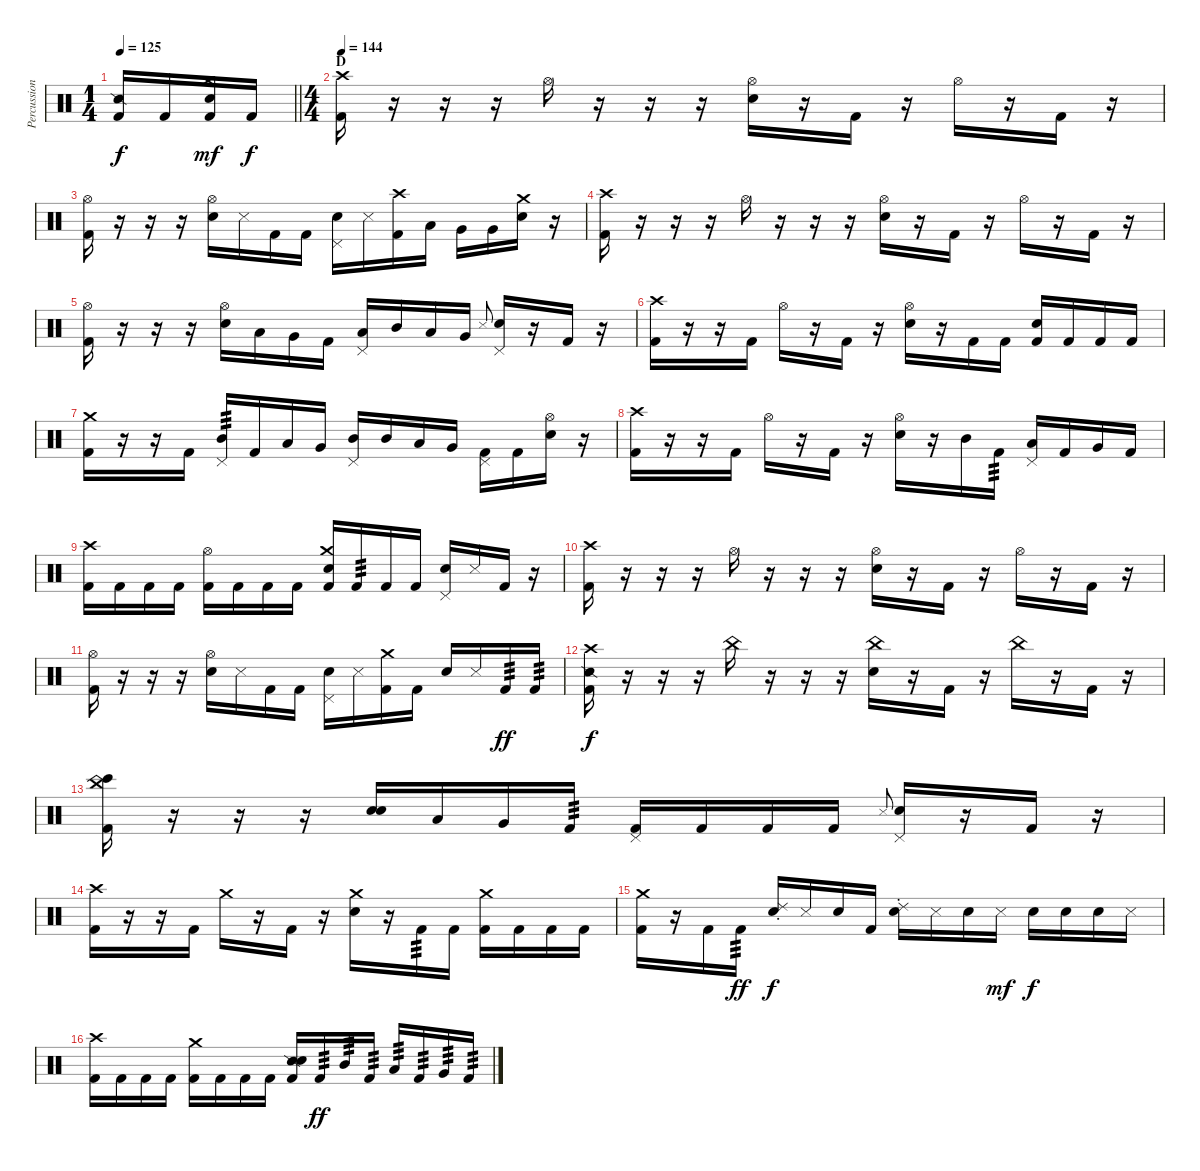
\track ("Percussion" "Percussion") {instrument percussion}
\staff {score}
\articulation defaults
\ts (1 4)
\tempo 125
\clef neutral
\barLineRight lightlight
\ks c
("Snare (side stick) 2" "Kick (hit) 2").16{dy f} "Kick (hit) 2".16 ("Crash medium (hit)" "Snare (hit) 2" "Kick (hit) 2").16{dy mf} "Kick (hit) 2".16{dy f} |
\ts (4 4)
\section ("" "D")
\tempo 144
("Crash high (hit)" "Kick (hit) 2").16 r.16 r.16 r.16 "Hi-Hat (open)".16 r.16 r.16 r.16 ("Hi-Hat (open)" "Snare (hit) 2").16 r.16 "Kick (hit) 2".16 r.16 "Hi-Hat (open)".16 r.16 "Kick (hit) 2".16 r.16 |
("Hi-Hat (open)" "Kick (hit) 2").16 r.16 r.16 r.16 ("Hi-Hat (open)" "Snare (hit) 2").16 "Metronome (hit)".16 "Kick (hit) 2".16 "Kick (hit) 2".16 ("Pedal Hi-Hat (hit)" "Snare (hit) 2").16 "Metronome (hit)".16 ("Crash high (hit)" "Kick (hit) 2").16 "Low Tom (hit)".16 "Very Low Tom (hit)".16 "Very Low Tom (hit)".16 ("Crash medium (hit)" "Snare (hit) 2").16 r.16 |
("Crash high (hit)" "Kick (hit) 2").16 r.16 r.16 r.16 "Hi-Hat (open)".16 r.16 r.16 r.16 ("Hi-Hat (open)" "Snare (hit) 2").16 r.16 "Kick (hit) 2".16 r.16 "Hi-Hat (open)".16 r.16 "Kick (hit) 2".16 r.16 |
("Hi-Hat (open)" "Kick (hit) 2").16 r.16 r.16 r.16 ("Hi-Hat (open)" "Snare (hit) 2").16 "Low Tom (hit)".16 "Very Low Tom (hit)".16 "Kick (hit) 2".16 ("Pedal Hi-Hat (hit)" "Low Floor Tom (hit)").16 "Mid Tom (hit)".16 "Low Tom (hit)".16 "Very Low Tom (hit)".16 "Metronome (hit)".8{gr onbeat} ("Pedal Hi-Hat (hit)" "Snare (hit) 2").16 r.16 "Kick (hit) 2".16 r.16 |
("Crash high (hit)" "Kick (hit) 2").16 r.16 r.16 "Kick (hit) 2".16 "Hi-Hat (open)".16 r.16 "Kick (hit) 2".16 r.16 ("Hi-Hat (open)" "Snare (hit) 2").16 r.16 "Kick (hit) 2".16 "Kick (hit) 2".16 ("Snare (hit)" "Kick (hit) 2").16 "Kick (hit) 2".16 "Kick (hit) 2".16 "Kick (hit) 2".16 |
("Crash medium (hit)" "Kick (hit) 2").16 r.16 r.16 "Kick (hit) 2".16 ("Pedal Hi-Hat (hit)" "Mid Tom (hit)").16{tp 3} "Kick (hit) 2".16 "Low Tom (hit)".16 "Very Low Tom (hit)".16 ("Pedal Hi-Hat (hit)" "Mid Tom (hit)").16 "Mid Tom (hit)".16 "Low Tom (hit)".16 "Very Low Tom (hit)".16 ("Pedal Hi-Hat (hit)" "Kick (hit) 2").16 "Kick (hit) 2".16 ("Hi-Hat (open)" "Snare (hit) 2").16 r.16 |
("Crash high (hit)" "Kick (hit) 2").16 r.16 r.16 "Kick (hit) 2".16 "Hi-Hat (open)".16 r.16 "Kick (hit) 2".16 r.16 ("Hi-Hat (open)" "Snare (hit) 2").16 r.16 "Mid Tom (hit)".16 "Kick (hit) 2".16{tp 3} ("Pedal Hi-Hat (hit)" "Low Tom (hit)").16 "Kick (hit) 2".16 "Very Low Tom (hit)".16 "Kick (hit) 2".16 |
("Crash high (hit)" "Kick (hit) 2").16 "Kick (hit) 2".16 "Kick (hit) 2".16 "Kick (hit) 2".16 ("Hi-Hat (open)" "Kick (hit) 2").16 "Kick (hit) 2".16 "Kick (hit) 2".16 "Kick (hit) 2".16 ("Crash medium (hit)" "Snare (hit) 2" "Kick (hit) 2").16 "Kick (hit) 2".16{tp 3} "Kick (hit) 2".16 "Kick (hit) 2".16 ("Pedal Hi-Hat (hit)" "Snare (hit) 2").16 "Metronome (hit)".16 "Kick (hit) 2".16 r.16 |
("Crash high (hit)" "Kick (hit) 2").16 r.16 r.16 r.16 "Hi-Hat (open)".16 r.16 r.16 r.16 ("Hi-Hat (open)" "Snare (hit) 2").16 r.16 "Kick (hit) 2".16 r.16 "Hi-Hat (open)".16 r.16 "Kick (hit) 2".16 r.16 |
("Hi-Hat (open)" "Kick (hit) 2").16 r.16 r.16 r.16 ("Hi-Hat (open)" "Snare (hit) 2").16 "Metronome (hit)".16 "Kick (hit) 2".16 "Kick (hit) 2".16 ("Pedal Hi-Hat (hit)" "Snare (hit) 2").16 "Metronome (hit)".16 ("Crash medium (hit)" "Kick (hit) 2").16 "Kick (hit) 2".16 "Snare (hit) 2".16 "Metronome (hit)".16 "Kick (hit) 2".16{tp 3 dy ff} "Kick (hit) 2".16{tp 3} |
("Crash high (hit)" "Snare (side stick) 2" "Kick (hit) 2").16{dy f} r.16 r.16 r.16 "China (hit)".16 r.16 r.16 r.16 ("China (hit)" "Snare (hit) 2").16 r.16 "Kick (hit) 2".16 r.16 "China (hit)".16 r.16 "Kick (hit) 2".16 r.16 |
("China (hit)" "Bongo High (hit)" "Kick (hit) 2").16 r.16 r.16 r.16 ("Snare (hit)" "Snare (hit) 2").16 "Low Tom (hit)".16 "Very Low Tom (hit)".16 "Kick (hit) 2".16{tp 3} ("Pedal Hi-Hat (hit)" "Kick (hit) 2").16 "Kick (hit) 2".16 "Kick (hit) 2".16 "Kick (hit) 2".16 "Metronome (hit)".8{gr onbeat} ("Pedal Hi-Hat (hit)" "Snare (hit) 2").16 r.16 "Kick (hit) 2".16 r.16 |
("Crash high (hit)" "Kick (hit) 2").16 r.16 r.16 "Kick (hit) 2".16 "Crash medium (hit)".16 r.16 "Kick (hit) 2".16 r.16 ("Crash medium (hit)" "Snare (hit) 2").16 r.16 "Kick (hit) 2".16{tp 3} "Kick (hit) 2".16 ("Crash medium (hit)" "Kick (hit) 2").16 "Kick (hit) 2".16 "Kick (hit) 2".16 "Kick (hit) 2".16 |
("Crash medium (hit)" "Kick (hit) 2").16 r.16 "Kick (hit) 2".16 "Kick (hit) 2".16{tp 3 dy ff} ("Ride (choke) 2" "Snare (hit) 2").16{dy f} "Metronome (hit)".16 "Snare (hit) 2".16 "Kick (hit) 2".16 ("Ride (choke) 2" "Snare (hit) 2").16 "Metronome (hit)".16 "Snare (hit) 2".16 "Metronome (hit)".16{dy mf} "Snare (hit) 2".16{dy f} "Snare (hit) 2".16 "Snare (hit) 2".16 "Metronome (hit)".16 |
("Crash high (hit)" "Kick (hit) 2").16 "Kick (hit) 2".16 "Kick (hit) 2".16 "Kick (hit) 2".16 ("Crash medium (hit)" "Kick (hit) 2").16 "Kick (hit) 2".16 "Kick (hit) 2".16 "Kick (hit) 2".16 ("Snare (side stick) 2" "Snare (hit) 2" "Kick (hit) 2").16 "Kick (hit) 2".16{tp 3 dy ff} "Mid Tom (hit)".16{tp 3} "Kick (hit) 2".16{tp 3} "Low Tom (hit)".16{tp 3} "Kick (hit) 2".16{tp 3} "Very Low Tom (hit)".16{tp 3} "Kick (hit) 2".16{tp 3}
